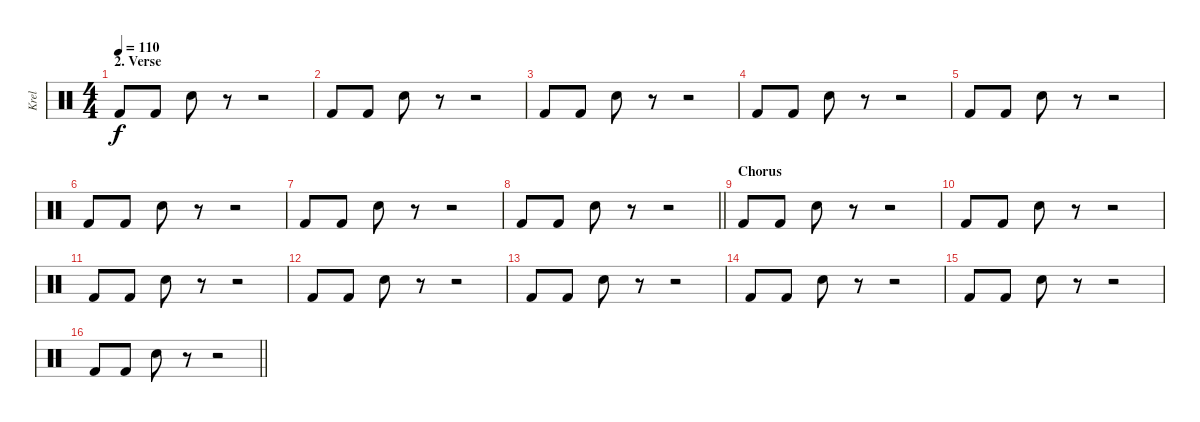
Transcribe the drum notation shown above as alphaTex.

\track ("Krel" "Krel") {instrument percussion}
\staff {score}
\articulation defaults
\ts (4 4)
\section ("" "2. Verse")
\tempo 110
\clef neutral
\ks c "Kick (hit) 2".8{dy f} "Kick (hit) 2".8 "Snare (hit) 2".8
r.8 r.2 |
"Kick (hit) 2".8 "Kick (hit) 2".8 "Snare (hit) 2".8 r.8 r.2 |
"Kick (hit) 2".8 "Kick (hit) 2".8 "Snare (hit) 2".8 r.8 r.2 |
"Kick (hit) 2".8 "Kick (hit) 2".8 "Snare (hit) 2".8 r.8 r.2 |
"Kick (hit) 2".8 "Kick (hit) 2".8 "Snare (hit) 2".8 r.8 r.2 |
"Kick (hit) 2".8 "Kick (hit) 2".8 "Snare (hit) 2".8 r.8 r.2 |
"Kick (hit) 2".8 "Kick (hit) 2".8 "Snare (hit) 2".8 r.8 r.2 |
\barLineRight lightlight "Kick (hit) 2".8 "Kick (hit) 2".8 "Snare (hit) 2".8
r.8 r.2 |
\section ("" "Chorus")
"Kick (hit) 2".8 "Kick (hit) 2".8 "Snare (hit) 2".8 r.8 r.2 |
"Kick (hit) 2".8 "Kick (hit) 2".8 "Snare (hit) 2".8 r.8 r.2 |
"Kick (hit) 2".8 "Kick (hit) 2".8 "Snare (hit) 2".8 r.8 r.2 |
"Kick (hit) 2".8 "Kick (hit) 2".8 "Snare (hit) 2".8 r.8 r.2 |
"Kick (hit) 2".8 "Kick (hit) 2".8 "Snare (hit) 2".8 r.8 r.2 |
"Kick (hit) 2".8 "Kick (hit) 2".8 "Snare (hit) 2".8 r.8 r.2 |
"Kick (hit) 2".8 "Kick (hit) 2".8 "Snare (hit) 2".8 r.8 r.2 |
\barLineRight lightlight "Kick (hit) 2".8 "Kick (hit) 2".8 "Snare (hit) 2".8
r.8 r.2
